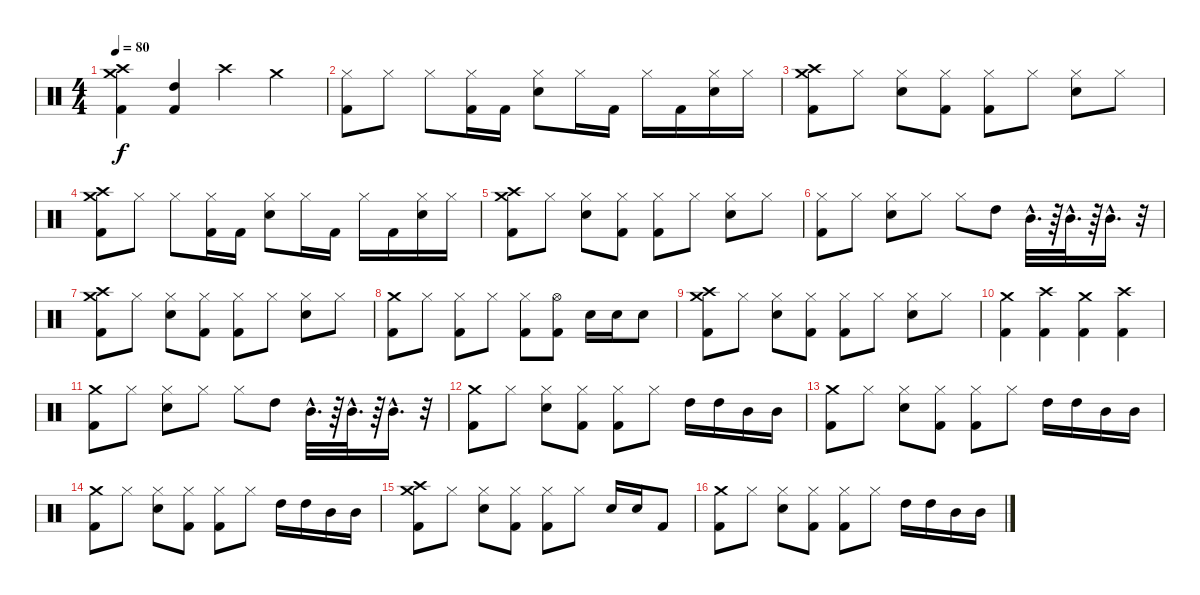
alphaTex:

\track "" {instrument percussion}
\staff {score}
\articulation defaults
\ts (4 4)
\tempo 80
\clef neutral
\ks c
("Crash high (hit)" "Crash medium (hit)" "Kick (hit) 2").4{dy f} ("High Tom (hit)" "Kick (hit) 2").4 "Crash high (hit)".4 "Crash medium (hit)".4 |
("Hi-Hat (closed)" "Kick (hit) 2").8 "Hi-Hat (closed)".8 "Hi-Hat (closed)".8 ("Hi-Hat (closed)" "Kick (hit) 2").16 "Kick (hit) 2".16 ("Hi-Hat (closed)" "Electric Snare (hit)").8 "Hi-Hat (closed)".16 "Kick (hit) 2".16 "Hi-Hat (closed)".16 "Kick (hit) 2".16 ("Hi-Hat (closed)" "Electric Snare (hit)").16 "Hi-Hat (closed)".16 |
("Kick (hit) 2" "Crash medium (hit)" "Crash high (hit)").8 "Hi-Hat (closed)".8 ("Hi-Hat (closed)" "Snare (hit) 2").8 ("Hi-Hat (closed)" "Kick (hit) 2").8 ("Kick (hit) 2" "Hi-Hat (closed)").8 "Hi-Hat (closed)".8 ("Hi-Hat (closed)" "Snare (hit) 2").8 "Hi-Hat (closed)".8 |
("Crash high (hit)" "Crash medium (hit)" "Kick (hit) 2").8 "Hi-Hat (closed)".8 "Hi-Hat (closed)".8 ("Hi-Hat (closed)" "Kick (hit) 2").16 "Kick (hit) 2".16 ("Hi-Hat (closed)" "Electric Snare (hit)").8 "Hi-Hat (closed)".16 "Kick (hit) 2".16 "Hi-Hat (closed)".16 "Kick (hit) 2".16 ("Hi-Hat (closed)" "Electric Snare (hit)").16 "Hi-Hat (closed)".16 |
("Kick (hit) 2" "Crash medium (hit)" "Crash high (hit)").8 "Hi-Hat (closed)".8 ("Hi-Hat (closed)" "Snare (hit) 2").8 ("Hi-Hat (closed)" "Kick (hit) 2").8 ("Kick (hit) 2" "Hi-Hat (closed)").8 "Hi-Hat (closed)".8 ("Hi-Hat (closed)" "Snare (hit) 2").8 "Hi-Hat (closed)".8 |
("Hi-Hat (closed)" "Kick (hit) 2").8 "Hi-Hat (closed)".8 ("Snare (hit) 2" "Hi-Hat (closed)").8 "Hi-Hat (closed)".8 "Hi-Hat (closed)".8 "High Tom (hit)".8 "Mid Tom (hit)"{hac}.32{d} r.64 "Mid Tom (hit)"{hac}.32{d} r.64 "Mid Tom (hit)"{hac}.16{d} r.32 |
("Kick (hit) 2" "Crash medium (hit)" "Crash high (hit)").8 "Hi-Hat (closed)".8 ("Hi-Hat (closed)" "Snare (hit) 2").8 ("Hi-Hat (closed)" "Kick (hit) 2").8 ("Kick (hit) 2" "Hi-Hat (closed)").8 "Hi-Hat (closed)".8 ("Hi-Hat (closed)" "Snare (hit) 2").8 "Hi-Hat (closed)".8 |
("Crash medium (hit)" "Kick (hit) 2").8 "Hi-Hat (closed)".8 ("Hi-Hat (closed)" "Kick (hit) 2").8 "Hi-Hat (closed)".8 ("Hi-Hat (closed)" "Kick (hit) 2").8 ("Hi-Hat (open)" "Kick (hit) 2").8 "Snare (hit) 2".16 "Snare (hit) 2".16 "Snare (hit) 2".8 |
("Kick (hit) 2" "Crash medium (hit)" "Crash high (hit)").8 "Hi-Hat (closed)".8 ("Hi-Hat (closed)" "Snare (hit) 2").8 ("Hi-Hat (closed)" "Kick (hit) 2").8 ("Kick (hit) 2" "Hi-Hat (closed)").8 "Hi-Hat (closed)".8 ("Hi-Hat (closed)" "Snare (hit) 2").8 "Hi-Hat (closed)".8 |
("Kick (hit) 2" "Crash medium (hit)").4 ("Kick (hit) 2" "Crash high (hit)").4 ("Kick (hit) 2" "Crash medium (hit)").4 ("Kick (hit) 2" "Crash high (hit)").4 |
("Crash medium (hit)" "Kick (hit) 2").8 "Hi-Hat (closed)".8 ("Snare (hit) 2" "Hi-Hat (closed)").8 "Hi-Hat (closed)".8 "Hi-Hat (closed)".8 "High Tom (hit)".8 "Mid Tom (hit)"{hac}.32{d} r.64 "Mid Tom (hit)"{hac}.32{d} r.64 "Mid Tom (hit)"{hac}.16{d} r.32 |
("Kick (hit) 2" "Crash medium (hit)").8 "Hi-Hat (closed)".8 ("Hi-Hat (closed)" "Snare (hit) 2").8 ("Hi-Hat (closed)" "Kick (hit) 2").8 ("Kick (hit) 2" "Hi-Hat (closed)").8 "Hi-Hat (closed)".8 "High Tom (hit)".16 "High Tom (hit)".16 "Mid Tom (hit)".16 "Mid Tom (hit)".16 |
("Kick (hit) 2" "Crash medium (hit)").8 "Hi-Hat (closed)".8 ("Hi-Hat (closed)" "Snare (hit) 2").8 ("Hi-Hat (closed)" "Kick (hit) 2").8 ("Kick (hit) 2" "Hi-Hat (closed)").8 "Hi-Hat (closed)".8 "High Tom (hit)".16 "High Tom (hit)".16 "Mid Tom (hit)".16 "Mid Tom (hit)".16 |
("Kick (hit) 2" "Crash medium (hit)").8 "Hi-Hat (closed)".8 ("Hi-Hat (closed)" "Snare (hit) 2").8 ("Hi-Hat (closed)" "Kick (hit) 2").8 ("Kick (hit) 2" "Hi-Hat (closed)").8 "Hi-Hat (closed)".8 "High Tom (hit)".16 "High Tom (hit)".16 "Mid Tom (hit)".16 "Mid Tom (hit)".16 |
("Kick (hit) 2" "Crash medium (hit)" "Crash high (hit)").8 "Hi-Hat (closed)".8 ("Hi-Hat (closed)" "Snare (hit) 2").8 ("Hi-Hat (closed)" "Kick (hit) 2").8 ("Kick (hit) 2" "Hi-Hat (closed)").8 "Hi-Hat (closed)".8 "Snare (hit) 2".16 "Snare (hit) 2".16 "Kick (hit) 2".8 |
("Kick (hit) 2" "Crash medium (hit)").8 "Hi-Hat (closed)".8 ("Hi-Hat (closed)" "Snare (hit) 2").8 ("Hi-Hat (closed)" "Kick (hit) 2").8 ("Kick (hit) 2" "Hi-Hat (closed)").8 "Hi-Hat (closed)".8 "High Tom (hit)".16 "High Tom (hit)".16 "Mid Tom (hit)".16 "Mid Tom (hit)".16
